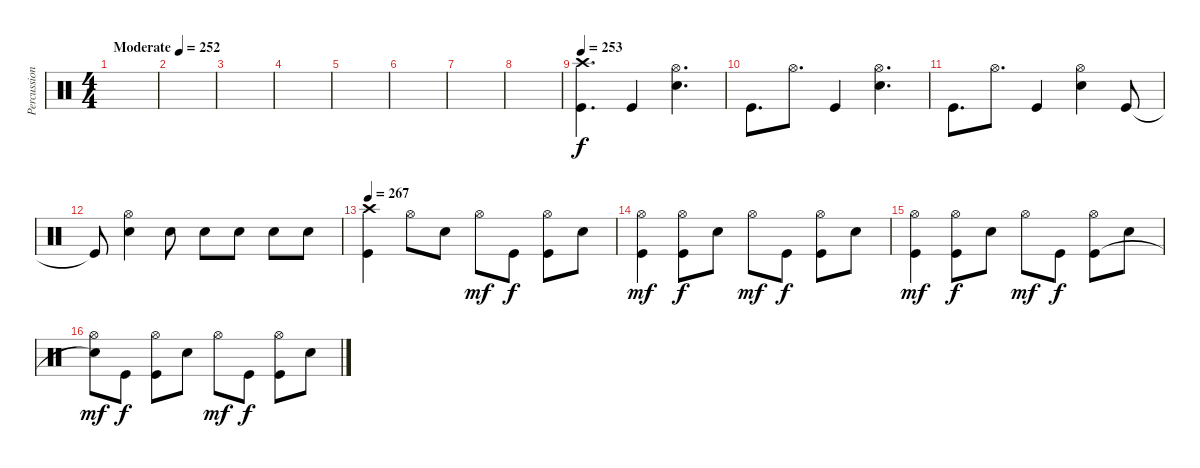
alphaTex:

\track ("Percussion" "Percussion") {instrument percussion}
\staff {score}
\articulation defaults
\ts (4 4)
\tempo (252 "Moderate")
\clef neutral
\ks c
|
|
|
|
|
|
|
|
\tempo 253
("Crash high (hit)" "Kick (hit)").4{d} "Kick (hit)".4 ("Hi-Hat (open)" "Electric Snare (hit)").4{d} |
"Kick (hit)".8{d} "Hi-Hat (open)".8{d} "Kick (hit)".4 ("Hi-Hat (open)" "Electric Snare (hit)").4{d} |
"Kick (hit)".8{d} "Hi-Hat (open)".8{d} "Kick (hit)".4 ("Hi-Hat (open)" "Electric Snare (hit)").4 "Kick (hit)".8 |
"Kick (hit)"{t}.8 ("Hi-Hat (open)" "Electric Snare (hit)").4 "Electric Snare (hit)".8 "Electric Snare (hit)".8 "Electric Snare (hit)".8 "Electric Snare (hit)".8 "Electric Snare (hit)".8 |
\tempo 267
("Crash high (hit)" "Kick (hit)").4 "Hi-Hat (open)".8 "Electric Snare (hit)".8 "Hi-Hat (open)".8{dy mf} "Kick (hit)".8{dy f} ("Hi-Hat (open)" "Kick (hit)").8 "Electric Snare (hit)".8 |
("Hi-Hat (open)" "Kick (hit)").4{dy mf} ("Hi-Hat (open)" "Kick (hit)").8{dy f} "Electric Snare (hit)".8 "Hi-Hat (open)".8{dy mf} "Kick (hit)".8{dy f} ("Hi-Hat (open)" "Kick (hit)").8 "Electric Snare (hit)".8 |
("Hi-Hat (open)" "Kick (hit)").4{dy mf} ("Hi-Hat (open)" "Kick (hit)").8{dy f} "Electric Snare (hit)".8 "Hi-Hat (open)".8{dy mf} "Kick (hit)".8{dy f} ("Hi-Hat (open)" "Kick (hit)").8 "Electric Snare (hit)".8 |
("Hi-Hat (open)" "Snare (hit)"{t}).8{dy mf} "Kick (hit)".8{dy f} ("Hi-Hat (open)" "Kick (hit)").8 "Electric Snare (hit)".8 "Hi-Hat (open)".8{dy mf} "Kick (hit)".8{dy f} ("Hi-Hat (open)" "Kick (hit)").8 "Electric Snare (hit)".8
